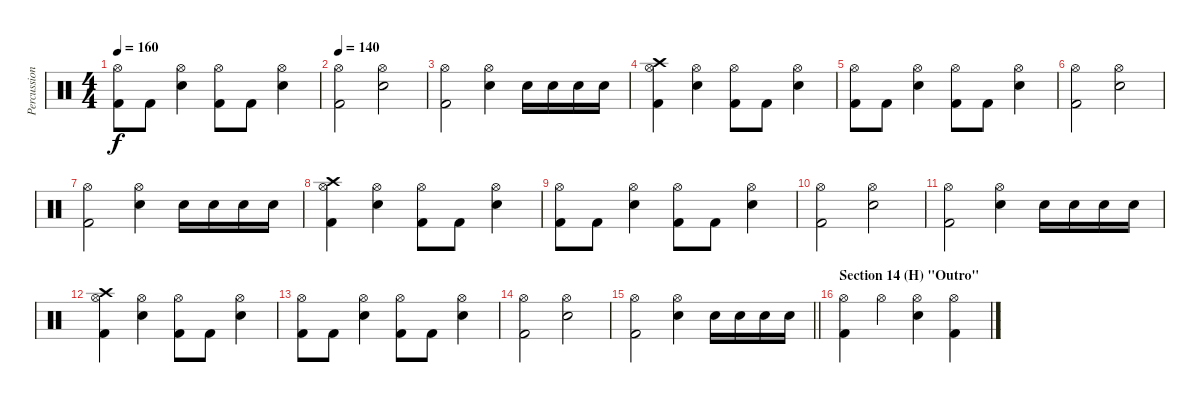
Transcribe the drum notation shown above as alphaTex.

\track ("Percussion" "Percussion") {instrument percussion}
\staff {score}
\articulation defaults
\ts (4 4)
\tempo 160
\clef neutral
\ks c
("Hi-Hat (open)" "Kick (hit) 2").8{dy f} "Kick (hit) 2".8 ("Hi-Hat (open)" "Snare (hit) 2").4 ("Hi-Hat (open)" "Kick (hit) 2").8 "Kick (hit) 2".8 ("Hi-Hat (open)" "Snare (hit) 2").4 |
\tempo 140
("Hi-Hat (open)" "Kick (hit) 2").2 ("Hi-Hat (open)" "Snare (hit) 2").2 |
("Hi-Hat (open)" "Kick (hit) 2").2 ("Hi-Hat (open)" "Snare (hit) 2").4 "Snare (hit) 2".16 "Snare (hit) 2".16 "Snare (hit) 2".16 "Snare (hit) 2".16 |
("Crash high (hit)" "Hi-Hat (open)" "Kick (hit) 2").4 ("Hi-Hat (open)" "Snare (hit) 2").4 ("Hi-Hat (open)" "Kick (hit) 2").8 "Kick (hit) 2".8 ("Hi-Hat (open)" "Snare (hit) 2").4 |
("Hi-Hat (open)" "Kick (hit) 2").8 "Kick (hit) 2".8 ("Hi-Hat (open)" "Snare (hit) 2").4 ("Hi-Hat (open)" "Kick (hit) 2").8 "Kick (hit) 2".8 ("Hi-Hat (open)" "Snare (hit) 2").4 |
("Hi-Hat (open)" "Kick (hit) 2").2 ("Hi-Hat (open)" "Snare (hit) 2").2 |
("Hi-Hat (open)" "Kick (hit) 2").2 ("Hi-Hat (open)" "Snare (hit) 2").4 "Snare (hit) 2".16 "Snare (hit) 2".16 "Snare (hit) 2".16 "Snare (hit) 2".16 |
("Crash high (hit)" "Hi-Hat (open)" "Kick (hit) 2").4 ("Hi-Hat (open)" "Snare (hit) 2").4 ("Hi-Hat (open)" "Kick (hit) 2").8 "Kick (hit) 2".8 ("Hi-Hat (open)" "Snare (hit) 2").4 |
("Hi-Hat (open)" "Kick (hit) 2").8 "Kick (hit) 2".8 ("Hi-Hat (open)" "Snare (hit) 2").4 ("Hi-Hat (open)" "Kick (hit) 2").8 "Kick (hit) 2".8 ("Hi-Hat (open)" "Snare (hit) 2").4 |
("Hi-Hat (open)" "Kick (hit) 2").2 ("Hi-Hat (open)" "Snare (hit) 2").2 |
("Hi-Hat (open)" "Kick (hit) 2").2 ("Hi-Hat (open)" "Snare (hit) 2").4 "Snare (hit) 2".16 "Snare (hit) 2".16 "Snare (hit) 2".16 "Snare (hit) 2".16 |
("Crash high (hit)" "Hi-Hat (open)" "Kick (hit) 2").4 ("Hi-Hat (open)" "Snare (hit) 2").4 ("Hi-Hat (open)" "Kick (hit) 2").8 "Kick (hit) 2".8 ("Hi-Hat (open)" "Snare (hit) 2").4 |
("Hi-Hat (open)" "Kick (hit) 2").8 "Kick (hit) 2".8 ("Hi-Hat (open)" "Snare (hit) 2").4 ("Hi-Hat (open)" "Kick (hit) 2").8 "Kick (hit) 2".8 ("Hi-Hat (open)" "Snare (hit) 2").4 |
("Hi-Hat (open)" "Kick (hit) 2").2 ("Hi-Hat (open)" "Snare (hit) 2").2 |
\barLineRight lightlight
("Hi-Hat (open)" "Kick (hit) 2").2 ("Hi-Hat (open)" "Snare (hit) 2").4 "Snare (hit) 2".16 "Snare (hit) 2".16 "Snare (hit) 2".16 "Snare (hit) 2".16 |
\section ("" "Section 14 (H) \"Outro\"")
("Hi-Hat (open)" "Kick (hit) 2").4 "Hi-Hat (open)".4 ("Hi-Hat (open)" "Snare (hit) 2").4 ("Hi-Hat (open)" "Kick (hit) 2").4
